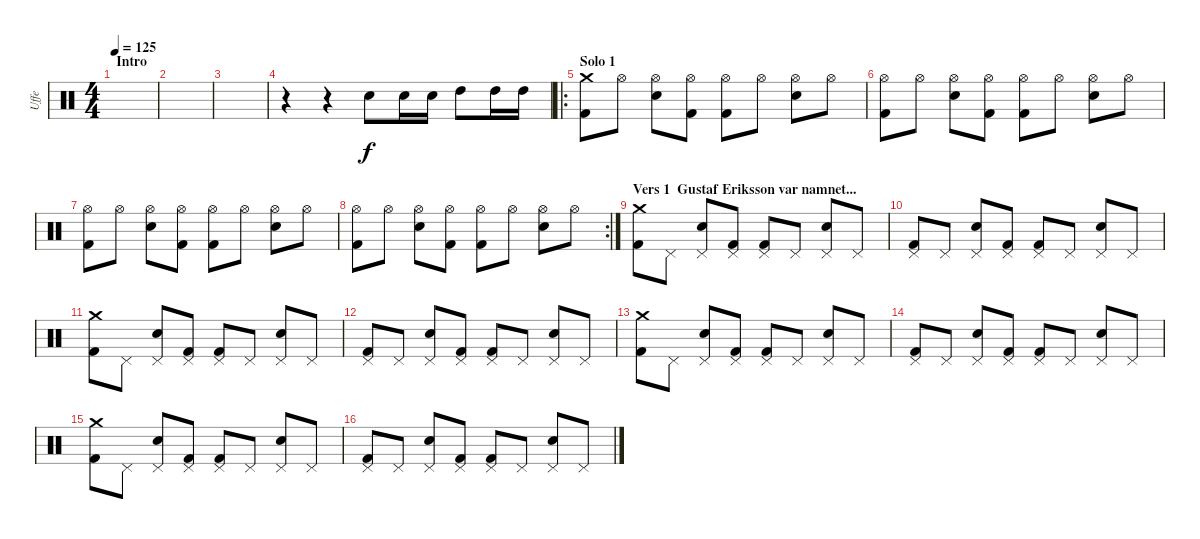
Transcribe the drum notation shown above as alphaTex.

\track ("Uffe" "Uffe") {instrument percussion}
\staff {score}
\articulation defaults
\ts (4 4)
\section ("" "Intro")
\tempo 125
\clef neutral
\ks c
|
|
|
r.4 r.4 "Electric Snare (hit)".8 "Electric Snare (hit)".16 "Electric Snare (hit)".16 "High Tom (hit)".8 "High Tom (hit)".16 "High Tom (hit)".16 |
\ro
\section ("" "Solo 1")
("Crash medium (hit)" "Kick (hit) 2").8 "Hi-Hat (open)".8 ("Hi-Hat (open)" "Electric Snare (hit)").8 ("Hi-Hat (open)" "Kick (hit) 2").8 ("Hi-Hat (open)" "Kick (hit) 2").8 "Hi-Hat (open)".8 ("Hi-Hat (open)" "Electric Snare (hit)").8 "Hi-Hat (open)".8 |
("Hi-Hat (open)" "Kick (hit) 2").8 "Hi-Hat (open)".8 ("Hi-Hat (open)" "Electric Snare (hit)").8 ("Hi-Hat (open)" "Kick (hit) 2").8 ("Hi-Hat (open)" "Kick (hit) 2").8 "Hi-Hat (open)".8 ("Hi-Hat (open)" "Electric Snare (hit)").8 "Hi-Hat (open)".8 |
("Hi-Hat (open)" "Kick (hit) 2").8 "Hi-Hat (open)".8 ("Hi-Hat (open)" "Electric Snare (hit)").8 ("Hi-Hat (open)" "Kick (hit) 2").8 ("Hi-Hat (open)" "Kick (hit) 2").8 "Hi-Hat (open)".8 ("Hi-Hat (open)" "Electric Snare (hit)").8 "Hi-Hat (open)".8 |
\rc 2
("Hi-Hat (open)" "Kick (hit) 2").8 "Hi-Hat (open)".8 ("Hi-Hat (open)" "Electric Snare (hit)").8 ("Hi-Hat (open)" "Kick (hit) 2").8 ("Hi-Hat (open)" "Kick (hit) 2").8 "Hi-Hat (open)".8 ("Hi-Hat (open)" "Electric Snare (hit)").8 "Hi-Hat (open)".8 |
\section ("" "Vers 1  Gustaf Eriksson var namnet...")
("Crash medium (hit)" "Kick (hit) 2").8 "Pedal Hi-Hat (hit)".8 ("Pedal Hi-Hat (hit)" "Electric Snare (hit)").8 ("Pedal Hi-Hat (hit)" "Kick (hit) 2").8 ("Pedal Hi-Hat (hit)" "Kick (hit) 2").8 "Pedal Hi-Hat (hit)".8 ("Pedal Hi-Hat (hit)" "Electric Snare (hit)").8 "Pedal Hi-Hat (hit)".8 |
("Pedal Hi-Hat (hit)" "Kick (hit) 2").8 "Pedal Hi-Hat (hit)".8 ("Pedal Hi-Hat (hit)" "Electric Snare (hit)").8 ("Pedal Hi-Hat (hit)" "Kick (hit) 2").8 ("Pedal Hi-Hat (hit)" "Kick (hit) 2").8 "Pedal Hi-Hat (hit)".8 ("Pedal Hi-Hat (hit)" "Electric Snare (hit)").8 "Pedal Hi-Hat (hit)".8 |
("Crash medium (hit)" "Kick (hit) 2").8 "Pedal Hi-Hat (hit)".8 ("Pedal Hi-Hat (hit)" "Electric Snare (hit)").8 ("Pedal Hi-Hat (hit)" "Kick (hit) 2").8 ("Pedal Hi-Hat (hit)" "Kick (hit) 2").8 "Pedal Hi-Hat (hit)".8 ("Pedal Hi-Hat (hit)" "Electric Snare (hit)").8 "Pedal Hi-Hat (hit)".8 |
("Pedal Hi-Hat (hit)" "Kick (hit) 2").8 "Pedal Hi-Hat (hit)".8 ("Pedal Hi-Hat (hit)" "Electric Snare (hit)").8 ("Pedal Hi-Hat (hit)" "Kick (hit) 2").8 ("Pedal Hi-Hat (hit)" "Kick (hit) 2").8 "Pedal Hi-Hat (hit)".8 ("Pedal Hi-Hat (hit)" "Electric Snare (hit)").8 "Pedal Hi-Hat (hit)".8 |
("Crash medium (hit)" "Kick (hit) 2").8 "Pedal Hi-Hat (hit)".8 ("Pedal Hi-Hat (hit)" "Electric Snare (hit)").8 ("Pedal Hi-Hat (hit)" "Kick (hit) 2").8 ("Pedal Hi-Hat (hit)" "Kick (hit) 2").8 "Pedal Hi-Hat (hit)".8 ("Pedal Hi-Hat (hit)" "Electric Snare (hit)").8 "Pedal Hi-Hat (hit)".8 |
("Pedal Hi-Hat (hit)" "Kick (hit) 2").8 "Pedal Hi-Hat (hit)".8 ("Pedal Hi-Hat (hit)" "Electric Snare (hit)").8 ("Pedal Hi-Hat (hit)" "Kick (hit) 2").8 ("Pedal Hi-Hat (hit)" "Kick (hit) 2").8 "Pedal Hi-Hat (hit)".8 ("Pedal Hi-Hat (hit)" "Electric Snare (hit)").8 "Pedal Hi-Hat (hit)".8 |
("Crash medium (hit)" "Kick (hit) 2").8 "Pedal Hi-Hat (hit)".8 ("Pedal Hi-Hat (hit)" "Electric Snare (hit)").8 ("Pedal Hi-Hat (hit)" "Kick (hit) 2").8 ("Pedal Hi-Hat (hit)" "Kick (hit) 2").8 "Pedal Hi-Hat (hit)".8 ("Pedal Hi-Hat (hit)" "Electric Snare (hit)").8 "Pedal Hi-Hat (hit)".8 |
("Pedal Hi-Hat (hit)" "Kick (hit) 2").8 "Pedal Hi-Hat (hit)".8 ("Pedal Hi-Hat (hit)" "Electric Snare (hit)").8 ("Pedal Hi-Hat (hit)" "Kick (hit) 2").8 ("Pedal Hi-Hat (hit)" "Kick (hit) 2").8 "Pedal Hi-Hat (hit)".8 ("Pedal Hi-Hat (hit)" "Electric Snare (hit)").8 "Pedal Hi-Hat (hit)".8
